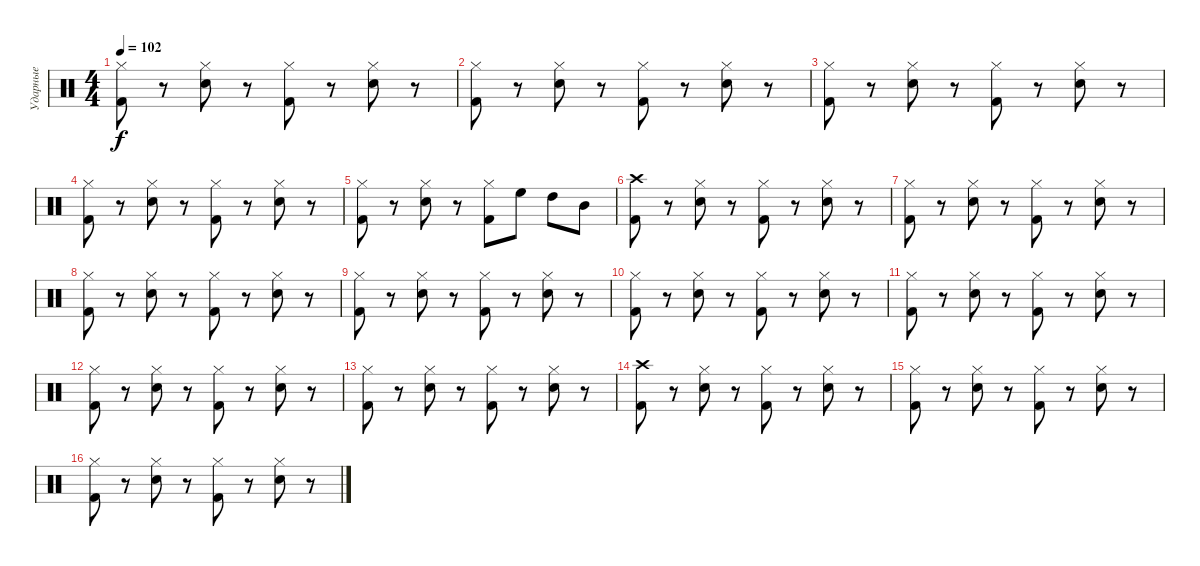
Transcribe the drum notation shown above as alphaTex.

\track ("Ударные" "Ударные") {instrument percussion}
\staff {score}
\articulation defaults
\ts (4 4)
\tempo 102
\clef neutral
\ks c
("Hi-Hat (closed)" "Kick (hit) 2").8{dy f} r.8 ("Hi-Hat (closed)" "Snare (hit) 2").8 r.8 ("Hi-Hat (closed)" "Kick (hit) 2").8 r.8 ("Hi-Hat (closed)" "Snare (hit) 2").8 r.8 |
("Hi-Hat (closed)" "Kick (hit) 2").8 r.8 ("Hi-Hat (closed)" "Snare (hit) 2").8 r.8 ("Hi-Hat (closed)" "Kick (hit) 2").8 r.8 ("Hi-Hat (closed)" "Snare (hit) 2").8 r.8 |
("Hi-Hat (closed)" "Kick (hit) 2").8 r.8 ("Hi-Hat (closed)" "Snare (hit) 2").8 r.8 ("Hi-Hat (closed)" "Kick (hit) 2").8 r.8 ("Hi-Hat (closed)" "Snare (hit) 2").8 r.8 |
("Hi-Hat (closed)" "Kick (hit) 2").8 r.8 ("Hi-Hat (closed)" "Snare (hit) 2").8 r.8 ("Hi-Hat (closed)" "Kick (hit) 2").8 r.8 ("Hi-Hat (closed)" "Snare (hit) 2").8 r.8 |
("Hi-Hat (closed)" "Kick (hit) 2").8 r.8 ("Hi-Hat (closed)" "Snare (hit) 2").8 r.8 ("Hi-Hat (closed)" "Kick (hit) 2").8 "High Floor Tom (hit)".8 "High Tom (hit)".8 "Mid Tom (hit)".8 |
("Crash high (hit)" "Kick (hit) 2").8 r.8 ("Hi-Hat (closed)" "Snare (hit) 2").8 r.8 ("Hi-Hat (closed)" "Kick (hit) 2").8 r.8 ("Hi-Hat (closed)" "Snare (hit) 2").8 r.8 |
("Hi-Hat (closed)" "Kick (hit) 2").8 r.8 ("Hi-Hat (closed)" "Snare (hit) 2").8 r.8 ("Hi-Hat (closed)" "Kick (hit) 2").8 r.8 ("Hi-Hat (closed)" "Snare (hit) 2").8 r.8 |
("Hi-Hat (closed)" "Kick (hit) 2").8 r.8 ("Hi-Hat (closed)" "Snare (hit) 2").8 r.8 ("Hi-Hat (closed)" "Kick (hit) 2").8 r.8 ("Hi-Hat (closed)" "Snare (hit) 2").8 r.8 |
("Hi-Hat (closed)" "Kick (hit) 2").8 r.8 ("Hi-Hat (closed)" "Snare (hit) 2").8 r.8 ("Hi-Hat (closed)" "Kick (hit) 2").8 r.8 ("Hi-Hat (closed)" "Snare (hit) 2").8 r.8 |
("Hi-Hat (closed)" "Kick (hit) 2").8 r.8 ("Hi-Hat (closed)" "Snare (hit) 2").8 r.8 ("Hi-Hat (closed)" "Kick (hit) 2").8 r.8 ("Hi-Hat (closed)" "Snare (hit) 2").8 r.8 |
("Hi-Hat (closed)" "Kick (hit) 2").8 r.8 ("Hi-Hat (closed)" "Snare (hit) 2").8 r.8 ("Hi-Hat (closed)" "Kick (hit) 2").8 r.8 ("Hi-Hat (closed)" "Snare (hit) 2").8 r.8 |
("Hi-Hat (closed)" "Kick (hit) 2").8 r.8 ("Hi-Hat (closed)" "Snare (hit) 2").8 r.8 ("Hi-Hat (closed)" "Kick (hit) 2").8 r.8 ("Hi-Hat (closed)" "Snare (hit) 2").8 r.8 |
("Hi-Hat (closed)" "Kick (hit) 2").8 r.8 ("Hi-Hat (closed)" "Snare (hit) 2").8 r.8 ("Hi-Hat (closed)" "Kick (hit) 2").8 r.8 ("Hi-Hat (closed)" "Snare (hit) 2").8 r.8 |
("Crash high (hit)" "Kick (hit) 2").8 r.8 ("Hi-Hat (closed)" "Snare (hit) 2").8 r.8 ("Hi-Hat (closed)" "Kick (hit) 2").8 r.8 ("Hi-Hat (closed)" "Snare (hit) 2").8 r.8 |
("Hi-Hat (closed)" "Kick (hit) 2").8 r.8 ("Hi-Hat (closed)" "Snare (hit) 2").8 r.8 ("Hi-Hat (closed)" "Kick (hit) 2").8 r.8 ("Hi-Hat (closed)" "Snare (hit) 2").8 r.8 |
("Hi-Hat (closed)" "Kick (hit) 2").8 r.8 ("Hi-Hat (closed)" "Snare (hit) 2").8 r.8 ("Hi-Hat (closed)" "Kick (hit) 2").8 r.8 ("Hi-Hat (closed)" "Snare (hit) 2").8 r.8
